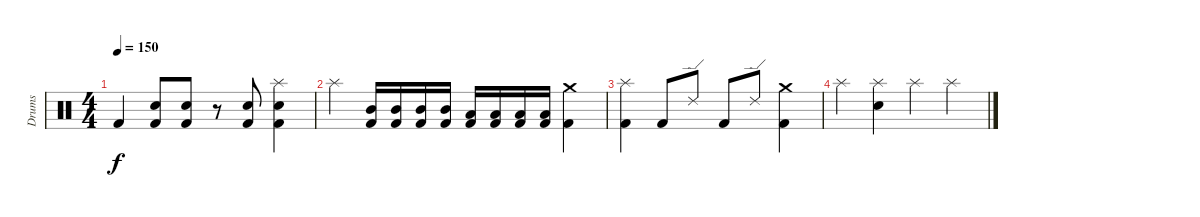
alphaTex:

\track ("Drums" "Drums") {instrument percussion}
\staff {score}
\articulation defaults
\ts (4 4)
\tempo 150
\clef neutral
\ks c "Kick (hit) 2".4{dy f}
("Kick (hit) 2" "Snare (hit) 2").8 ("Kick (hit) 2" "Snare (hit) 2").8 r.8 ("Kick (hit) 2" "Snare (hit) 2").8 ("Kick (hit) 2" "Snare (hit) 2" "Splash (hit)").4 |
"Splash (hit)".4 ("Kick (hit) 2" "Mid Tom (hit)").16 ("Kick (hit) 2" "Mid Tom (hit)").16 ("Kick (hit) 2" "Mid Tom (hit)").16 ("Kick (hit) 2" "Mid Tom (hit)").16 ("Kick (hit) 2" "Low Tom (hit)").16 ("Kick (hit) 2" "Low Tom (hit)").16 ("Kick (hit) 2" "Low Tom (hit)").16 ("Kick (hit) 2" "Low Tom (hit)").16 ("Kick (hit) 2" "Crash medium (hit)").4 |
("Kick (hit) 2" "Splash (hit)").4 "Kick (hit) 2".8 "Ride (edge) 2".8 "Kick (hit) 2".8 "Ride (edge) 2".8 ("Kick (hit) 2" "Crash medium (hit)").4 |
"Splash (hit)".4 ("Snare (hit) 2" "Splash (hit)").4 "Splash (hit)".4 "Splash (hit)".4
